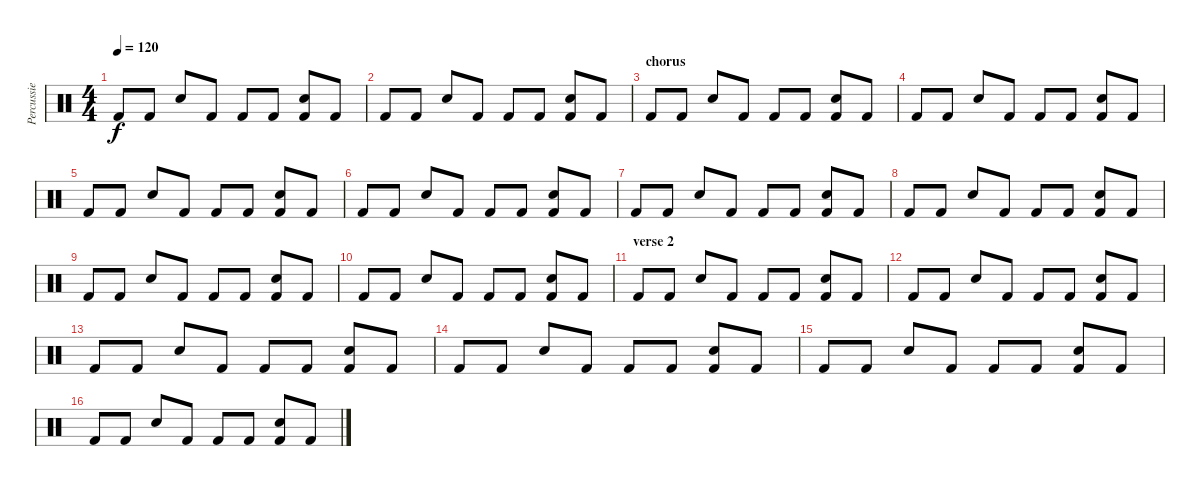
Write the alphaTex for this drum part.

\track ("Percussie" "Percussie") {instrument percussion}
\staff {score}
\articulation defaults
\ts (4 4)
\tempo 120
\clef neutral
\ks c "Kick (hit) 2".8{dy f} "Kick (hit) 2".8 "Snare (hit) 2".8 "Kick (hit) 2".8 "Kick (hit) 2".8 "Kick (hit) 2".8
("Snare (hit) 2" "Kick (hit) 2").8 "Kick (hit) 2".8 |
"Kick (hit) 2".8 "Kick (hit) 2".8 "Snare (hit) 2".8 "Kick (hit) 2".8 "Kick (hit) 2".8 "Kick (hit) 2".8 ("Snare (hit) 2" "Kick (hit) 2").8 "Kick (hit) 2".8 |
\section ("" "chorus")
"Kick (hit) 2".8 "Kick (hit) 2".8 "Snare (hit) 2".8 "Kick (hit) 2".8 "Kick (hit) 2".8 "Kick (hit) 2".8 ("Snare (hit) 2" "Kick (hit) 2").8 "Kick (hit) 2".8 |
"Kick (hit) 2".8 "Kick (hit) 2".8 "Snare (hit) 2".8 "Kick (hit) 2".8 "Kick (hit) 2".8 "Kick (hit) 2".8 ("Snare (hit) 2" "Kick (hit) 2").8 "Kick (hit) 2".8 |
"Kick (hit) 2".8 "Kick (hit) 2".8 "Snare (hit) 2".8 "Kick (hit) 2".8 "Kick (hit) 2".8 "Kick (hit) 2".8 ("Snare (hit) 2" "Kick (hit) 2").8 "Kick (hit) 2".8 |
"Kick (hit) 2".8 "Kick (hit) 2".8 "Snare (hit) 2".8 "Kick (hit) 2".8 "Kick (hit) 2".8 "Kick (hit) 2".8 ("Snare (hit) 2" "Kick (hit) 2").8 "Kick (hit) 2".8 |
"Kick (hit) 2".8 "Kick (hit) 2".8 "Snare (hit) 2".8 "Kick (hit) 2".8 "Kick (hit) 2".8 "Kick (hit) 2".8 ("Snare (hit) 2" "Kick (hit) 2").8 "Kick (hit) 2".8 |
"Kick (hit) 2".8 "Kick (hit) 2".8 "Snare (hit) 2".8 "Kick (hit) 2".8 "Kick (hit) 2".8 "Kick (hit) 2".8 ("Snare (hit) 2" "Kick (hit) 2").8 "Kick (hit) 2".8 |
"Kick (hit) 2".8 "Kick (hit) 2".8 "Snare (hit) 2".8 "Kick (hit) 2".8 "Kick (hit) 2".8 "Kick (hit) 2".8 ("Snare (hit) 2" "Kick (hit) 2").8 "Kick (hit) 2".8 |
"Kick (hit) 2".8 "Kick (hit) 2".8 "Snare (hit) 2".8 "Kick (hit) 2".8 "Kick (hit) 2".8 "Kick (hit) 2".8 ("Snare (hit) 2" "Kick (hit) 2").8 "Kick (hit) 2".8 |
\section ("" "verse 2")
"Kick (hit) 2".8 "Kick (hit) 2".8 "Snare (hit) 2".8 "Kick (hit) 2".8 "Kick (hit) 2".8 "Kick (hit) 2".8 ("Snare (hit) 2" "Kick (hit) 2").8 "Kick (hit) 2".8 |
"Kick (hit) 2".8 "Kick (hit) 2".8 "Snare (hit) 2".8 "Kick (hit) 2".8 "Kick (hit) 2".8 "Kick (hit) 2".8 ("Snare (hit) 2" "Kick (hit) 2").8 "Kick (hit) 2".8 |
"Kick (hit) 2".8 "Kick (hit) 2".8 "Snare (hit) 2".8 "Kick (hit) 2".8 "Kick (hit) 2".8 "Kick (hit) 2".8 ("Snare (hit) 2" "Kick (hit) 2").8 "Kick (hit) 2".8 |
"Kick (hit) 2".8 "Kick (hit) 2".8 "Snare (hit) 2".8 "Kick (hit) 2".8 "Kick (hit) 2".8 "Kick (hit) 2".8 ("Snare (hit) 2" "Kick (hit) 2").8 "Kick (hit) 2".8 |
"Kick (hit) 2".8 "Kick (hit) 2".8 "Snare (hit) 2".8 "Kick (hit) 2".8 "Kick (hit) 2".8 "Kick (hit) 2".8 ("Snare (hit) 2" "Kick (hit) 2").8 "Kick (hit) 2".8 |
"Kick (hit) 2".8 "Kick (hit) 2".8 "Snare (hit) 2".8 "Kick (hit) 2".8 "Kick (hit) 2".8 "Kick (hit) 2".8 ("Snare (hit) 2" "Kick (hit) 2").8 "Kick (hit) 2".8
